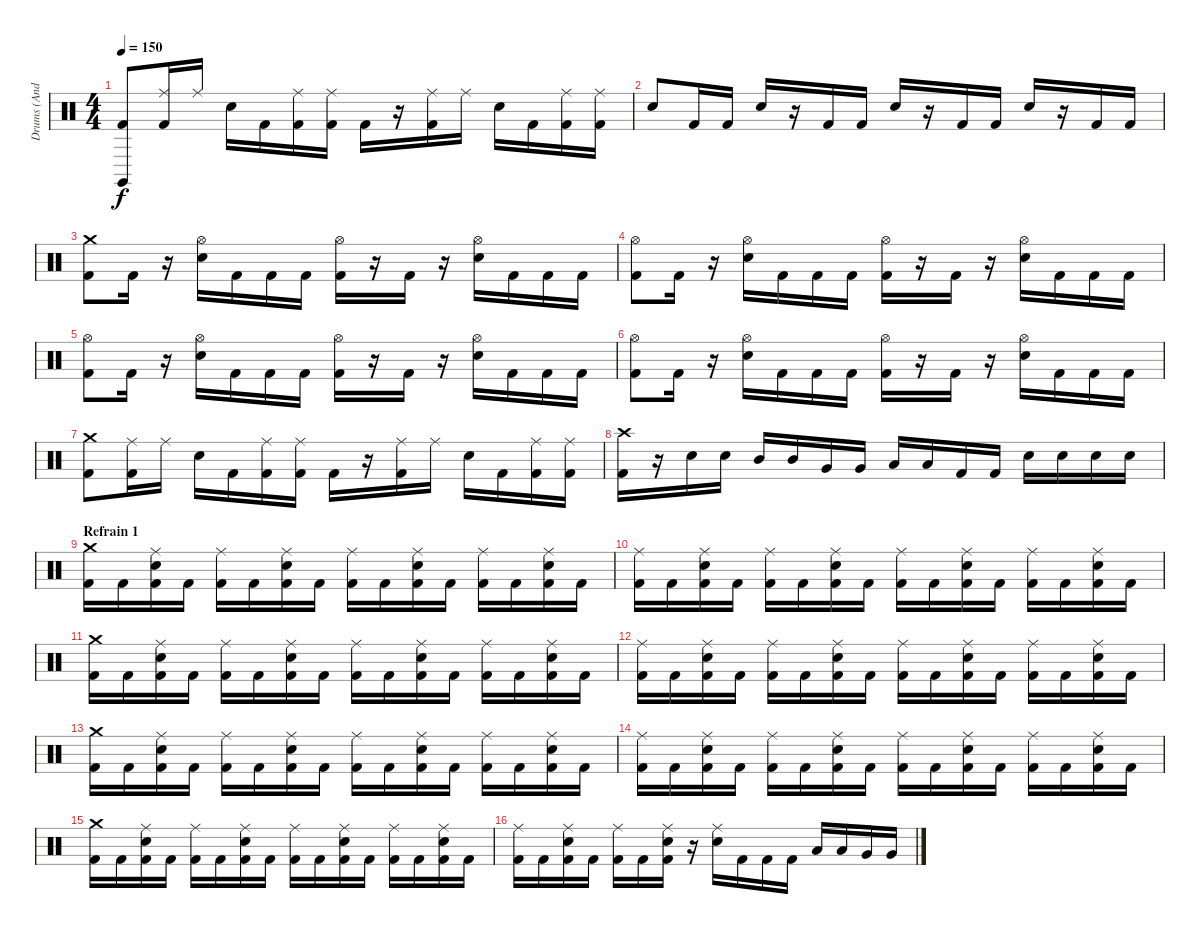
\track ("Drums (Andy C)" "Drums (And") {instrument percussion}
\staff {score}
\articulation defaults
\ts (4 4)
\tempo 150
\clef neutral
\ks c
("Claves (hit)" "Kick (hit) 2").8{dy f} ("Ride (middle)" "Kick (hit) 2").16 "Ride (middle)".16 "Electric Snare (hit)".16 "Kick (hit) 2".16 ("Ride (middle)" "Kick (hit) 2").16 ("Ride (middle)" "Kick (hit) 2").16 "Kick (hit) 2".16 r.16 ("Ride (middle)" "Kick (hit) 2").16 "Ride (middle)".16 "Electric Snare (hit)".16 "Kick (hit) 2".16 ("Ride (middle)" "Kick (hit) 2").16 ("Ride (middle)" "Kick (hit) 2").16 |
"Electric Snare (hit)".8 "Kick (hit) 2".16 "Kick (hit) 2".16 "Electric Snare (hit)".16 r.16 "Kick (hit) 2".16 "Kick (hit) 2".16 "Electric Snare (hit)".16 r.16 "Kick (hit) 2".16 "Kick (hit) 2".16 "Electric Snare (hit)".16 r.16 "Kick (hit) 2".16 "Kick (hit) 2".16 |
("Crash medium (hit)" "Kick (hit) 2").8 "Kick (hit) 2".16 r.16 ("Hi-Hat (open)" "Electric Snare (hit)").16 "Kick (hit) 2".16 "Kick (hit) 2".16 "Kick (hit) 2".16 ("Hi-Hat (open)" "Kick (hit) 2").16 r.16 "Kick (hit) 2".16 r.16 ("Hi-Hat (open)" "Electric Snare (hit)").16 "Kick (hit) 2".16 "Kick (hit) 2".16 "Kick (hit) 2".16 |
("Hi-Hat (open)" "Kick (hit) 2").8 "Kick (hit) 2".16 r.16 ("Hi-Hat (open)" "Electric Snare (hit)").16 "Kick (hit) 2".16 "Kick (hit) 2".16 "Kick (hit) 2".16 ("Hi-Hat (open)" "Kick (hit) 2").16 r.16 "Kick (hit) 2".16 r.16 ("Hi-Hat (open)" "Electric Snare (hit)").16 "Kick (hit) 2".16 "Kick (hit) 2".16 "Kick (hit) 2".16 |
("Hi-Hat (open)" "Kick (hit) 2").8 "Kick (hit) 2".16 r.16 ("Hi-Hat (open)" "Electric Snare (hit)").16 "Kick (hit) 2".16 "Kick (hit) 2".16 "Kick (hit) 2".16 ("Hi-Hat (open)" "Kick (hit) 2").16 r.16 "Kick (hit) 2".16 r.16 ("Hi-Hat (open)" "Electric Snare (hit)").16 "Kick (hit) 2".16 "Kick (hit) 2".16 "Kick (hit) 2".16 |
("Hi-Hat (open)" "Kick (hit) 2").8 "Kick (hit) 2".16 r.16 ("Hi-Hat (open)" "Electric Snare (hit)").16 "Kick (hit) 2".16 "Kick (hit) 2".16 "Kick (hit) 2".16 ("Hi-Hat (open)" "Kick (hit) 2").16 r.16 "Kick (hit) 2".16 r.16 ("Hi-Hat (open)" "Electric Snare (hit)").16 "Kick (hit) 2".16 "Kick (hit) 2".16 "Kick (hit) 2".16 |
("Crash medium (hit)" "Kick (hit) 2").8 ("Ride (middle)" "Kick (hit) 2").16 "Ride (middle)".16 "Electric Snare (hit)".16 "Kick (hit) 2".16 ("Ride (middle)" "Kick (hit) 2").16 ("Ride (middle)" "Kick (hit) 2").16 "Kick (hit) 2".16 r.16 ("Ride (middle)" "Kick (hit) 2").16 "Ride (middle)".16 "Electric Snare (hit)".16 "Kick (hit) 2".16 ("Ride (middle)" "Kick (hit) 2").16 ("Ride (middle)" "Kick (hit) 2").16 |
("Crash high (hit)" "Kick (hit) 2").16 r.16 "Snare (hit) 2".16 "Snare (hit) 2".16 "Mid Tom (hit)".16 "Mid Tom (hit)".16 "Very Low Tom (hit)".16 "Very Low Tom (hit)".16 "Low Floor Tom (hit)".16 "Low Floor Tom (hit)".16 "Kick (hit) 2".16 "Kick (hit) 2".16 "Electric Snare (hit)".16 "Electric Snare (hit)".16 "Electric Snare (hit)".16 "Electric Snare (hit)".16 |
\section ("" "Refrain 1")
("Crash medium (hit)" "Kick (hit) 2").16 "Kick (hit) 2".16 ("Ride (middle)" "Kick (hit) 2" "Electric Snare (hit)").16 "Kick (hit) 2".16 ("Ride (middle)" "Kick (hit) 2").16 "Kick (hit) 2".16 ("Ride (middle)" "Kick (hit) 2" "Electric Snare (hit)").16 "Kick (hit) 2".16 ("Ride (middle)" "Kick (hit) 2").16 "Kick (hit) 2".16 ("Ride (middle)" "Kick (hit) 2" "Electric Snare (hit)").16 "Kick (hit) 2".16 ("Ride (middle)" "Kick (hit) 2").16 "Kick (hit) 2".16 ("Ride (middle)" "Kick (hit) 2" "Electric Snare (hit)").16 "Kick (hit) 2".16 |
("Ride (middle)" "Kick (hit) 2").16 "Kick (hit) 2".16 ("Ride (middle)" "Kick (hit) 2" "Electric Snare (hit)").16 "Kick (hit) 2".16 ("Ride (middle)" "Kick (hit) 2").16 "Kick (hit) 2".16 ("Ride (middle)" "Kick (hit) 2" "Electric Snare (hit)").16 "Kick (hit) 2".16 ("Ride (middle)" "Kick (hit) 2").16 "Kick (hit) 2".16 ("Ride (middle)" "Kick (hit) 2" "Electric Snare (hit)").16 "Kick (hit) 2".16 ("Ride (middle)" "Kick (hit) 2").16 "Kick (hit) 2".16 ("Ride (middle)" "Kick (hit) 2" "Electric Snare (hit)").16 "Kick (hit) 2".16 |
("Crash medium (hit)" "Kick (hit) 2").16 "Kick (hit) 2".16 ("Ride (middle)" "Kick (hit) 2" "Electric Snare (hit)").16 "Kick (hit) 2".16 ("Ride (middle)" "Kick (hit) 2").16 "Kick (hit) 2".16 ("Ride (middle)" "Kick (hit) 2" "Electric Snare (hit)").16 "Kick (hit) 2".16 ("Ride (middle)" "Kick (hit) 2").16 "Kick (hit) 2".16 ("Ride (middle)" "Kick (hit) 2" "Electric Snare (hit)").16 "Kick (hit) 2".16 ("Ride (middle)" "Kick (hit) 2").16 "Kick (hit) 2".16 ("Ride (middle)" "Kick (hit) 2" "Electric Snare (hit)").16 "Kick (hit) 2".16 |
("Ride (middle)" "Kick (hit) 2").16 "Kick (hit) 2".16 ("Ride (middle)" "Kick (hit) 2" "Electric Snare (hit)").16 "Kick (hit) 2".16 ("Ride (middle)" "Kick (hit) 2").16 "Kick (hit) 2".16 ("Ride (middle)" "Kick (hit) 2" "Electric Snare (hit)").16 "Kick (hit) 2".16 ("Ride (middle)" "Kick (hit) 2").16 "Kick (hit) 2".16 ("Ride (middle)" "Kick (hit) 2" "Electric Snare (hit)").16 "Kick (hit) 2".16 ("Ride (middle)" "Kick (hit) 2").16 "Kick (hit) 2".16 ("Ride (middle)" "Kick (hit) 2" "Electric Snare (hit)").16 "Kick (hit) 2".16 |
("Crash medium (hit)" "Kick (hit) 2").16 "Kick (hit) 2".16 ("Ride (middle)" "Kick (hit) 2" "Electric Snare (hit)").16 "Kick (hit) 2".16 ("Ride (middle)" "Kick (hit) 2").16 "Kick (hit) 2".16 ("Ride (middle)" "Kick (hit) 2" "Electric Snare (hit)").16 "Kick (hit) 2".16 ("Ride (middle)" "Kick (hit) 2").16 "Kick (hit) 2".16 ("Ride (middle)" "Kick (hit) 2" "Electric Snare (hit)").16 "Kick (hit) 2".16 ("Ride (middle)" "Kick (hit) 2").16 "Kick (hit) 2".16 ("Ride (middle)" "Kick (hit) 2" "Electric Snare (hit)").16 "Kick (hit) 2".16 |
("Ride (middle)" "Kick (hit) 2").16 "Kick (hit) 2".16 ("Ride (middle)" "Kick (hit) 2" "Electric Snare (hit)").16 "Kick (hit) 2".16 ("Ride (middle)" "Kick (hit) 2").16 "Kick (hit) 2".16 ("Ride (middle)" "Kick (hit) 2" "Electric Snare (hit)").16 "Kick (hit) 2".16 ("Ride (middle)" "Kick (hit) 2").16 "Kick (hit) 2".16 ("Ride (middle)" "Kick (hit) 2" "Electric Snare (hit)").16 "Kick (hit) 2".16 ("Ride (middle)" "Kick (hit) 2").16 "Kick (hit) 2".16 ("Ride (middle)" "Kick (hit) 2" "Electric Snare (hit)").16 "Kick (hit) 2".16 |
("Crash medium (hit)" "Kick (hit) 2").16 "Kick (hit) 2".16 ("Ride (middle)" "Kick (hit) 2" "Electric Snare (hit)").16 "Kick (hit) 2".16 ("Ride (middle)" "Kick (hit) 2").16 "Kick (hit) 2".16 ("Ride (middle)" "Kick (hit) 2" "Electric Snare (hit)").16 "Kick (hit) 2".16 ("Ride (middle)" "Kick (hit) 2").16 "Kick (hit) 2".16 ("Ride (middle)" "Kick (hit) 2" "Electric Snare (hit)").16 "Kick (hit) 2".16 ("Ride (middle)" "Kick (hit) 2").16 "Kick (hit) 2".16 ("Ride (middle)" "Kick (hit) 2" "Electric Snare (hit)").16 "Kick (hit) 2".16 |
("Ride (middle)" "Kick (hit) 2").16 "Kick (hit) 2".16 ("Ride (middle)" "Kick (hit) 2" "Electric Snare (hit)").16 "Kick (hit) 2".16 ("Ride (middle)" "Kick (hit) 2").16 "Kick (hit) 2".16 ("Ride (middle)" "Kick (hit) 2" "Electric Snare (hit)").16 r.16 ("Ride (middle)" "Electric Snare (hit)").16 "Kick (hit) 2".16 "Kick (hit) 2".16 "Kick (hit) 2".16 "Low Tom (hit)".16 "Low Tom (hit)".16 "Very Low Tom (hit)".16 "Very Low Tom (hit)".16
